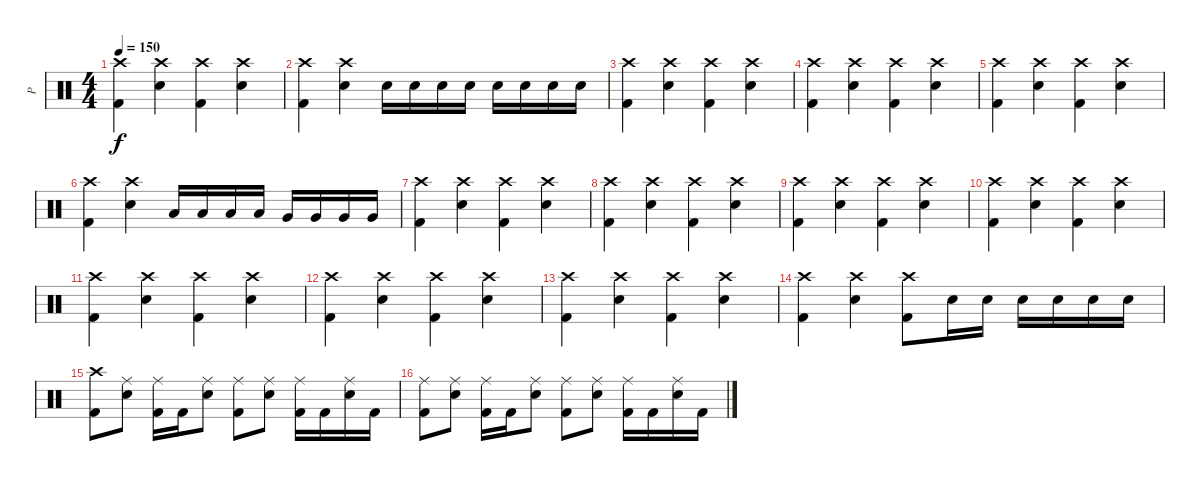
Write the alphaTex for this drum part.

\track ("P" "P") {instrument percussion}
\staff {score}
\articulation defaults
\ts (4 4)
\tempo 150
\clef neutral
\ks c
("Crash high (hit)" "Kick (hit) 2").4{dy f} ("Crash high (hit)" "Electric Snare (hit)").4 ("Crash high (hit)" "Kick (hit) 2").4 ("Crash high (hit)" "Electric Snare (hit)").4 |
("Crash high (hit)" "Kick (hit) 2").4 ("Crash high (hit)" "Electric Snare (hit)").4 "Electric Snare (hit)".16 "Electric Snare (hit)".16 "Electric Snare (hit)".16 "Electric Snare (hit)".16 "Electric Snare (hit)".16 "Electric Snare (hit)".16 "Electric Snare (hit)".16 "Electric Snare (hit)".16 |
("Crash high (hit)" "Kick (hit) 2").4 ("Crash high (hit)" "Electric Snare (hit)").4 ("Crash high (hit)" "Kick (hit) 2").4 ("Crash high (hit)" "Electric Snare (hit)").4 |
("Crash high (hit)" "Kick (hit) 2").4 ("Crash high (hit)" "Electric Snare (hit)").4 ("Crash high (hit)" "Kick (hit) 2").4 ("Crash high (hit)" "Electric Snare (hit)").4 |
("Crash high (hit)" "Kick (hit) 2").4 ("Crash high (hit)" "Electric Snare (hit)").4 ("Crash high (hit)" "Kick (hit) 2").4 ("Crash high (hit)" "Electric Snare (hit)").4 |
("Crash high (hit)" "Kick (hit) 2").4 ("Crash high (hit)" "Electric Snare (hit)").4 "Low Tom (hit)".16 "Low Tom (hit)".16 "Low Tom (hit)".16 "Low Tom (hit)".16 "Very Low Tom (hit)".16 "Very Low Tom (hit)".16 "Very Low Tom (hit)".16 "Very Low Tom (hit)".16 |
("Crash high (hit)" "Kick (hit) 2").4 ("Crash high (hit)" "Electric Snare (hit)").4 ("Crash high (hit)" "Kick (hit) 2").4 ("Crash high (hit)" "Electric Snare (hit)").4 |
("Crash high (hit)" "Kick (hit) 2").4 ("Crash high (hit)" "Electric Snare (hit)").4 ("Crash high (hit)" "Kick (hit) 2").4 ("Crash high (hit)" "Electric Snare (hit)").4 |
("Crash high (hit)" "Kick (hit) 2").4 ("Crash high (hit)" "Electric Snare (hit)").4 ("Crash high (hit)" "Kick (hit) 2").4 ("Crash high (hit)" "Electric Snare (hit)").4 |
("Crash high (hit)" "Kick (hit) 2").4 ("Crash high (hit)" "Electric Snare (hit)").4 ("Crash high (hit)" "Kick (hit) 2").4 ("Crash high (hit)" "Electric Snare (hit)").4 |
("Crash high (hit)" "Kick (hit) 2").4 ("Crash high (hit)" "Electric Snare (hit)").4 ("Crash high (hit)" "Kick (hit) 2").4 ("Crash high (hit)" "Electric Snare (hit)").4 |
("Crash high (hit)" "Kick (hit) 2").4 ("Crash high (hit)" "Electric Snare (hit)").4 ("Crash high (hit)" "Kick (hit) 2").4 ("Crash high (hit)" "Electric Snare (hit)").4 |
("Crash high (hit)" "Kick (hit) 2").4 ("Crash high (hit)" "Electric Snare (hit)").4 ("Crash high (hit)" "Kick (hit) 2").4 ("Crash high (hit)" "Electric Snare (hit)").4 |
("Crash high (hit)" "Kick (hit) 2").4 ("Crash high (hit)" "Electric Snare (hit)").4 ("Crash high (hit)" "Kick (hit) 2").8 "Electric Snare (hit)".16 "Electric Snare (hit)".16 "Electric Snare (hit)".16 "Electric Snare (hit)".16 "Electric Snare (hit)".16 "Electric Snare (hit)".16 |
("Crash high (hit)" "Kick (hit) 2").8 ("Ride (middle)" "Electric Snare (hit)").8 ("Ride (middle)" "Kick (hit) 2").16 "Kick (hit) 2".16 ("Ride (middle)" "Electric Snare (hit)").8 ("Ride (middle)" "Kick (hit) 2").8 ("Ride (middle)" "Electric Snare (hit)").8 ("Ride (middle)" "Kick (hit) 2").16 "Kick (hit) 2".16 ("Ride (middle)" "Electric Snare (hit)").16 "Kick (hit) 2".16 |
("Ride (middle)" "Kick (hit) 2").8 ("Ride (middle)" "Electric Snare (hit)").8 ("Ride (middle)" "Kick (hit) 2").16 "Kick (hit) 2".16 ("Ride (middle)" "Electric Snare (hit)").8 ("Ride (middle)" "Kick (hit) 2").8 ("Ride (middle)" "Electric Snare (hit)").8 ("Ride (middle)" "Kick (hit) 2").16 "Kick (hit) 2".16 ("Ride (middle)" "Electric Snare (hit)").16 "Kick (hit) 2".16
